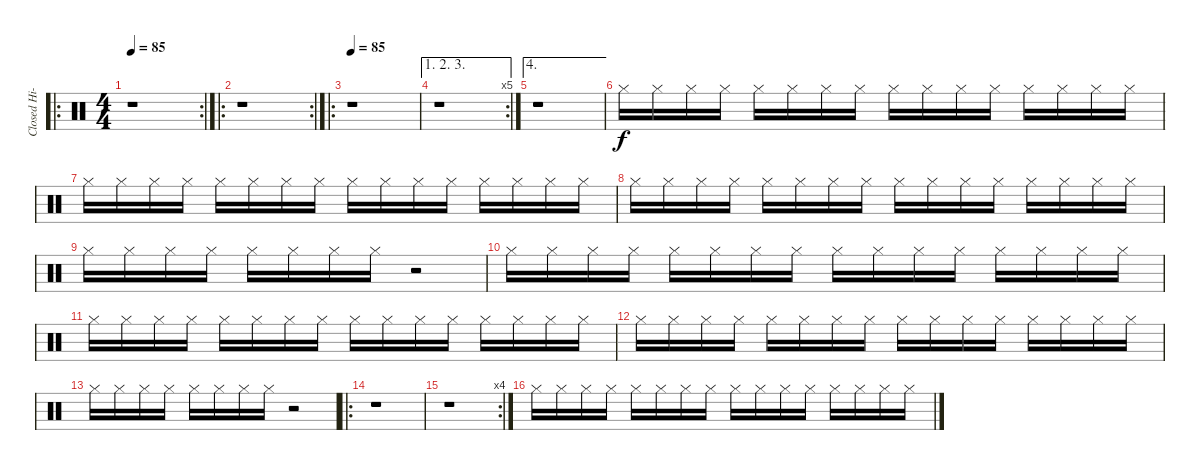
\track ("Closed Hi-Hats" "Closed Hi-") {instrument percussion}
\staff {score}
\articulation defaults
\ro
\rc 2
\ts (4 4)
\tempo 85
\clef neutral
\ks c
r.1{dy f} |
\ro
\rc 2
r.1 |
\ro
\tempo 85
r.1 |
\ae (1 2 3)
\rc 5
r.1 |
\ae 4
r.1 |
"Hi-Hat (closed)".16 "Hi-Hat (closed)".16 "Hi-Hat (closed)".16 "Hi-Hat (closed)".16 "Hi-Hat (closed)".16 "Hi-Hat (closed)".16 "Hi-Hat (closed)".16 "Hi-Hat (closed)".16 "Hi-Hat (closed)".16 "Hi-Hat (closed)".16 "Hi-Hat (closed)".16 "Hi-Hat (closed)".16 "Hi-Hat (closed)".16 "Hi-Hat (closed)".16 "Hi-Hat (closed)".16 "Hi-Hat (closed)".16 |
"Hi-Hat (closed)".16 "Hi-Hat (closed)".16 "Hi-Hat (closed)".16 "Hi-Hat (closed)".16 "Hi-Hat (closed)".16 "Hi-Hat (closed)".16 "Hi-Hat (closed)".16 "Hi-Hat (closed)".16 "Hi-Hat (closed)".16 "Hi-Hat (closed)".16 "Hi-Hat (closed)".16 "Hi-Hat (closed)".16 "Hi-Hat (closed)".16 "Hi-Hat (closed)".16 "Hi-Hat (closed)".16 "Hi-Hat (closed)".16 |
"Hi-Hat (closed)".16 "Hi-Hat (closed)".16 "Hi-Hat (closed)".16 "Hi-Hat (closed)".16 "Hi-Hat (closed)".16 "Hi-Hat (closed)".16 "Hi-Hat (closed)".16 "Hi-Hat (closed)".16 "Hi-Hat (closed)".16 "Hi-Hat (closed)".16 "Hi-Hat (closed)".16 "Hi-Hat (closed)".16 "Hi-Hat (closed)".16 "Hi-Hat (closed)".16 "Hi-Hat (closed)".16 "Hi-Hat (closed)".16 |
"Hi-Hat (closed)".16 "Hi-Hat (closed)".16 "Hi-Hat (closed)".16 "Hi-Hat (closed)".16 "Hi-Hat (closed)".16 "Hi-Hat (closed)".16 "Hi-Hat (closed)".16 "Hi-Hat (closed)".16 r.2 |
"Hi-Hat (closed)".16 "Hi-Hat (closed)".16 "Hi-Hat (closed)".16 "Hi-Hat (closed)".16 "Hi-Hat (closed)".16 "Hi-Hat (closed)".16 "Hi-Hat (closed)".16 "Hi-Hat (closed)".16 "Hi-Hat (closed)".16 "Hi-Hat (closed)".16 "Hi-Hat (closed)".16 "Hi-Hat (closed)".16 "Hi-Hat (closed)".16 "Hi-Hat (closed)".16 "Hi-Hat (closed)".16 "Hi-Hat (closed)".16 |
"Hi-Hat (closed)".16 "Hi-Hat (closed)".16 "Hi-Hat (closed)".16 "Hi-Hat (closed)".16 "Hi-Hat (closed)".16 "Hi-Hat (closed)".16 "Hi-Hat (closed)".16 "Hi-Hat (closed)".16 "Hi-Hat (closed)".16 "Hi-Hat (closed)".16 "Hi-Hat (closed)".16 "Hi-Hat (closed)".16 "Hi-Hat (closed)".16 "Hi-Hat (closed)".16 "Hi-Hat (closed)".16 "Hi-Hat (closed)".16 |
"Hi-Hat (closed)".16 "Hi-Hat (closed)".16 "Hi-Hat (closed)".16 "Hi-Hat (closed)".16 "Hi-Hat (closed)".16 "Hi-Hat (closed)".16 "Hi-Hat (closed)".16 "Hi-Hat (closed)".16 "Hi-Hat (closed)".16 "Hi-Hat (closed)".16 "Hi-Hat (closed)".16 "Hi-Hat (closed)".16 "Hi-Hat (closed)".16 "Hi-Hat (closed)".16 "Hi-Hat (closed)".16 "Hi-Hat (closed)".16 |
"Hi-Hat (closed)".16 "Hi-Hat (closed)".16 "Hi-Hat (closed)".16 "Hi-Hat (closed)".16 "Hi-Hat (closed)".16 "Hi-Hat (closed)".16 "Hi-Hat (closed)".16 "Hi-Hat (closed)".16 r.2 |
\ro
r.1 |
\rc 4
r.1 |
"Hi-Hat (closed)".16 "Hi-Hat (closed)".16 "Hi-Hat (closed)".16 "Hi-Hat (closed)".16 "Hi-Hat (closed)".16 "Hi-Hat (closed)".16 "Hi-Hat (closed)".16 "Hi-Hat (closed)".16 "Hi-Hat (closed)".16 "Hi-Hat (closed)".16 "Hi-Hat (closed)".16 "Hi-Hat (closed)".16 "Hi-Hat (closed)".16 "Hi-Hat (closed)".16 "Hi-Hat (closed)".16 "Hi-Hat (closed)".16
